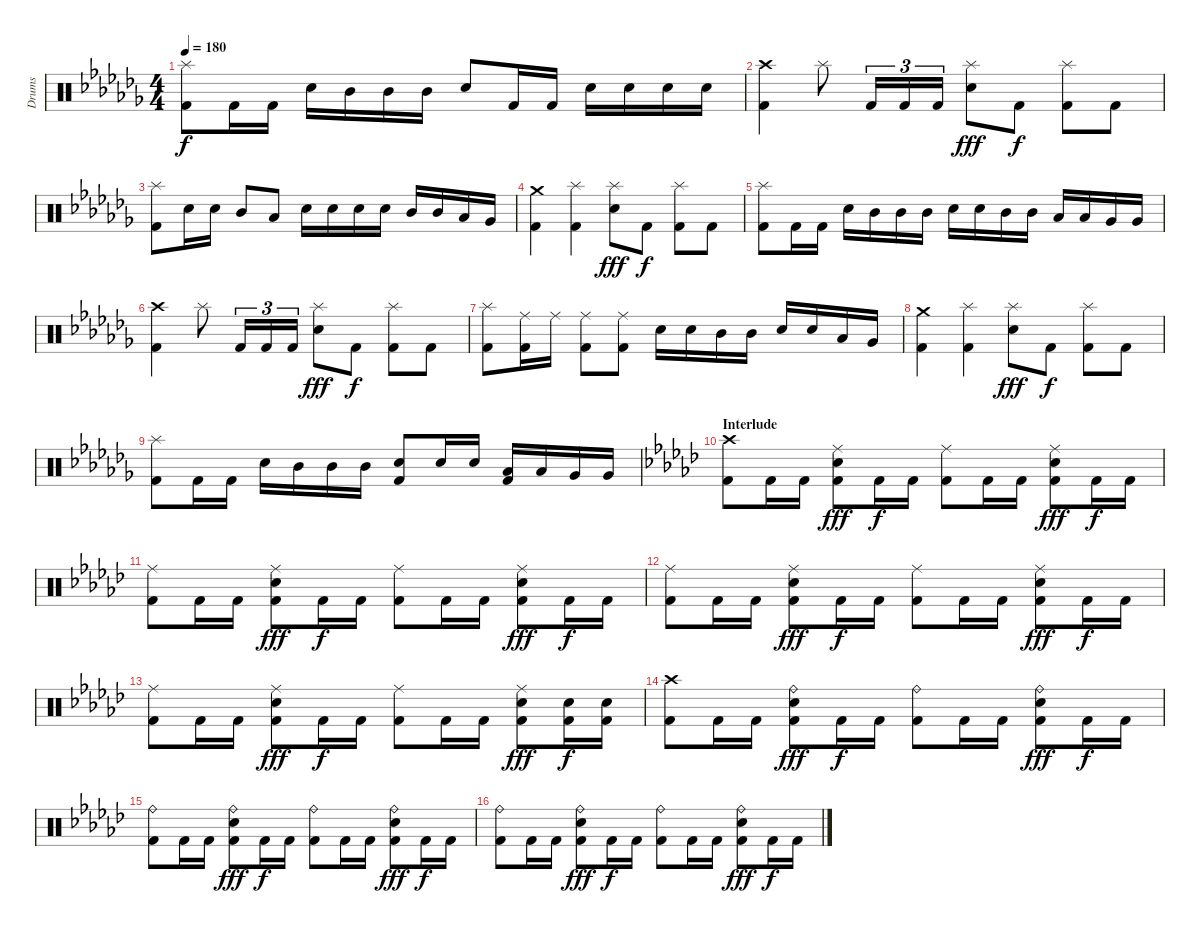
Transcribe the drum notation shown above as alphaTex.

\track ("Drums" "Drums") {instrument percussion}
\staff {score}
\articulation defaults
\ts (4 4)
\tempo 180
\clef neutral
\ks abminor
("Splash (hit)" "Kick (hit) 2").8{dy f} "Kick (hit) 2".16 "Kick (hit) 2".16 "Snare (hit) 2".16 "Mid Tom (hit)".16 "Mid Tom (hit)".16 "Mid Tom (hit)".16 "Snare (hit) 2".8 "Kick (hit) 2".16 "Kick (hit) 2".16 "Snare (hit) 2".16 "Snare (hit) 2".16 "Snare (hit) 2".16 "Snare (hit) 2".16 |
("Crash high (hit)" "Kick (hit) 2").4 "Splash (hit)".8 "Kick (hit) 2".16{tu (3 2)} "Kick (hit) 2".16{tu (3 2)} "Kick (hit) 2".16{tu (3 2)} ("Splash (hit)" "Snare (hit) 2").8{dy fff} "Kick (hit) 2".8{dy f} ("Splash (hit)" "Kick (hit) 2").8 "Kick (hit) 2".8 |
("Splash (hit)" "Kick (hit) 2").8 "Snare (hit) 2".16 "Snare (hit) 2".16 "Mid Tom (hit)".8 "Low Tom (hit)".8 "Snare (hit) 2".16 "Snare (hit) 2".16 "Snare (hit) 2".16 "Snare (hit) 2".16 "Mid Tom (hit)".16 "Mid Tom (hit)".16 "Low Tom (hit)".16 "Very Low Tom (hit)".16 |
("Crash medium (hit)" "Kick (hit) 2").4 ("Splash (hit)" "Kick (hit) 2").4 ("Splash (hit)" "Snare (hit) 2").8{dy fff} "Kick (hit) 2".8{dy f} ("Splash (hit)" "Kick (hit) 2").8 "Kick (hit) 2".8 |
("Splash (hit)" "Kick (hit) 2").8 "Kick (hit) 2".16 "Kick (hit) 2".16 "Snare (hit) 2".16 "Mid Tom (hit)".16 "Mid Tom (hit)".16 "Mid Tom (hit)".16 "Snare (hit) 2".16 "Snare (hit) 2".16 "Mid Tom (hit)".16 "Mid Tom (hit)".16 "Low Tom (hit)".16 "Low Tom (hit)".16 "Very Low Tom (hit)".16 "Very Low Tom (hit)".16 |
("Crash high (hit)" "Kick (hit) 2").4 "Splash (hit)".8 "Kick (hit) 2".16{tu (3 2)} "Kick (hit) 2".16{tu (3 2)} "Kick (hit) 2".16{tu (3 2)} ("Splash (hit)" "Snare (hit) 2").8{dy fff} "Kick (hit) 2".8{dy f} ("Splash (hit)" "Kick (hit) 2").8 "Kick (hit) 2".8 |
("Splash (hit)" "Kick (hit) 2").8 ("Ride (middle)" "Kick (hit) 2").16 "Ride (middle)".16 ("Ride (middle)" "Kick (hit) 2").8 ("Ride (middle)" "Kick (hit) 2").8 "Snare (hit) 2".16 "Snare (hit) 2".16 "Mid Tom (hit)".16 "Mid Tom (hit)".16 "Snare (hit) 2".16 "Snare (hit) 2".16 "Low Tom (hit)".16 "Very Low Tom (hit)".16 |
("Crash medium (hit)" "Kick (hit) 2").4 ("Splash (hit)" "Kick (hit) 2").4 ("Splash (hit)" "Snare (hit) 2").8{dy fff} "Kick (hit) 2".8{dy f} ("Splash (hit)" "Kick (hit) 2").8 "Kick (hit) 2".8 |
("Splash (hit)" "Kick (hit) 2").8 "Kick (hit) 2".16 "Kick (hit) 2".16 "Snare (hit) 2".16 "Mid Tom (hit)".16 "Mid Tom (hit)".16 "Mid Tom (hit)".16 ("Snare (hit) 2" "Kick (hit) 2").8 "Snare (hit) 2".16 "Snare (hit) 2".16 ("Low Tom (hit)" "Kick (hit) 2").16 "Low Tom (hit)".16 "Very Low Tom (hit)".16 "Very Low Tom (hit)".16 |
\section ("" "Interlude")
\ks ebminor
("Crash high (hit)" "Kick (hit) 2").8 "Kick (hit) 2".16 "Kick (hit) 2".16 ("Ride (middle)" "Snare (hit) 2" "Kick (hit) 2").8{dy fff} "Kick (hit) 2".16{dy f} "Kick (hit) 2".16 ("Ride (middle)" "Kick (hit) 2").8 "Kick (hit) 2".16 "Kick (hit) 2".16 ("Ride (middle)" "Snare (hit) 2" "Kick (hit) 2").8{dy fff} "Kick (hit) 2".16{dy f} "Kick (hit) 2".16 |
("Ride (middle)" "Kick (hit) 2").8 "Kick (hit) 2".16 "Kick (hit) 2".16 ("Ride (middle)" "Snare (hit) 2" "Kick (hit) 2").8{dy fff} "Kick (hit) 2".16{dy f} "Kick (hit) 2".16 ("Ride (middle)" "Kick (hit) 2").8 "Kick (hit) 2".16 "Kick (hit) 2".16 ("Ride (middle)" "Snare (hit) 2" "Kick (hit) 2").8{dy fff} "Kick (hit) 2".16{dy f} "Kick (hit) 2".16 |
("Ride (middle)" "Kick (hit) 2").8 "Kick (hit) 2".16 "Kick (hit) 2".16 ("Ride (middle)" "Snare (hit) 2" "Kick (hit) 2").8{dy fff} "Kick (hit) 2".16{dy f} "Kick (hit) 2".16 ("Ride (middle)" "Kick (hit) 2").8 "Kick (hit) 2".16 "Kick (hit) 2".16 ("Ride (middle)" "Snare (hit) 2" "Kick (hit) 2").8{dy fff} "Kick (hit) 2".16{dy f} "Kick (hit) 2".16 |
("Ride (middle)" "Kick (hit) 2").8 "Kick (hit) 2".16 "Kick (hit) 2".16 ("Ride (middle)" "Snare (hit) 2" "Kick (hit) 2").8{dy fff} "Kick (hit) 2".16{dy f} "Kick (hit) 2".16 ("Ride (middle)" "Kick (hit) 2").8 "Kick (hit) 2".16 "Kick (hit) 2".16 ("Ride (middle)" "Snare (hit) 2" "Kick (hit) 2").8{dy fff} ("Snare (hit) 2" "Kick (hit) 2").16{dy f} ("Snare (hit) 2" "Kick (hit) 2").16 |
("Crash high (hit)" "Kick (hit) 2").8 "Kick (hit) 2".16 "Kick (hit) 2".16 ("Ride (bell)" "Snare (hit) 2" "Kick (hit) 2").8{dy fff} "Kick (hit) 2".16{dy f} "Kick (hit) 2".16 ("Ride (bell)" "Kick (hit) 2").8 "Kick (hit) 2".16 "Kick (hit) 2".16 ("Ride (bell)" "Snare (hit) 2" "Kick (hit) 2").8{dy fff} "Kick (hit) 2".16{dy f} "Kick (hit) 2".16 |
("Ride (bell)" "Kick (hit) 2").8 "Kick (hit) 2".16 "Kick (hit) 2".16 ("Ride (bell)" "Snare (hit) 2" "Kick (hit) 2").8{dy fff} "Kick (hit) 2".16{dy f} "Kick (hit) 2".16 ("Ride (bell)" "Kick (hit) 2").8 "Kick (hit) 2".16 "Kick (hit) 2".16 ("Ride (bell)" "Snare (hit) 2" "Kick (hit) 2").8{dy fff} "Kick (hit) 2".16{dy f} "Kick (hit) 2".16 |
("Ride (bell)" "Kick (hit) 2").8 "Kick (hit) 2".16 "Kick (hit) 2".16 ("Ride (bell)" "Snare (hit) 2" "Kick (hit) 2").8{dy fff} "Kick (hit) 2".16{dy f} "Kick (hit) 2".16 ("Ride (bell)" "Kick (hit) 2").8 "Kick (hit) 2".16 "Kick (hit) 2".16 ("Ride (bell)" "Snare (hit) 2" "Kick (hit) 2").8{dy fff} "Kick (hit) 2".16{dy f} "Kick (hit) 2".16
